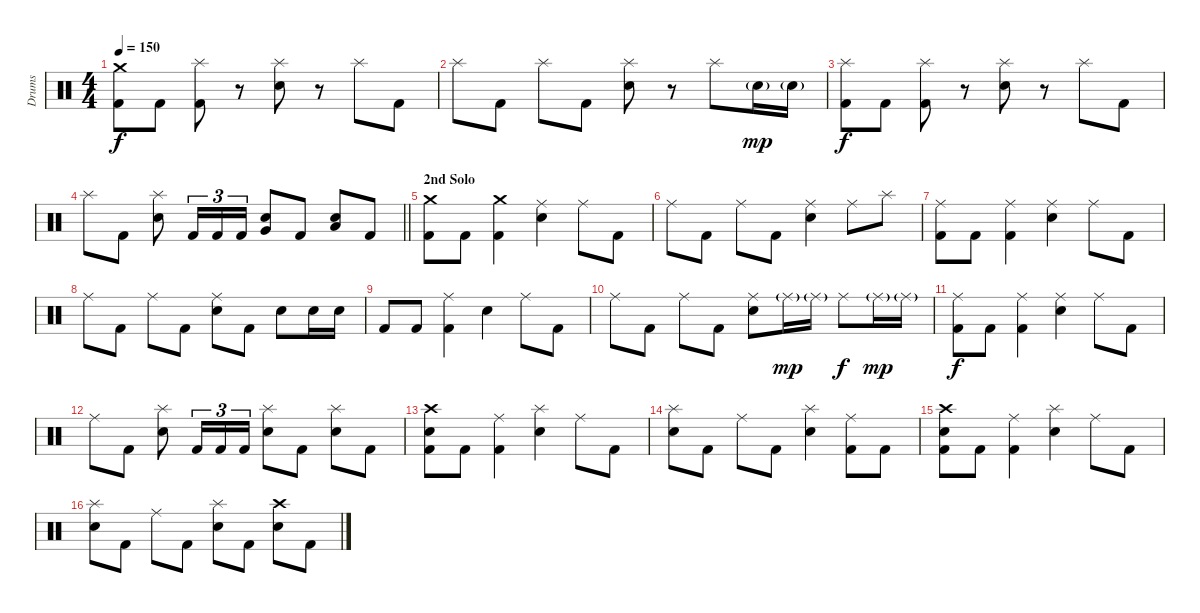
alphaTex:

\track ("Drums" "Drums") {instrument percussion}
\staff {score}
\articulation defaults
\ts (4 4)
\tempo 150
\clef neutral
\ks c
("Crash medium (hit)" "Kick (hit) 2").8{dy f} "Kick (hit) 2".8 ("Splash (hit)" "Kick (hit) 2").8 r.8 ("Splash (hit)" "Electric Snare (hit)").8 r.8 "Splash (hit)".8 "Kick (hit) 2".8 |
"Splash (hit)".8 "Kick (hit) 2".8 "Splash (hit)".8 "Kick (hit) 2".8 ("Splash (hit)" "Electric Snare (hit)").8 r.8 "Splash (hit)".8 "Electric Snare (hit)"{g}.16{dy mp} "Electric Snare (hit)"{g}.16 |
("Splash (hit)" "Kick (hit) 2").8{dy f} "Kick (hit) 2".8 ("Splash (hit)" "Kick (hit) 2").8 r.8 ("Splash (hit)" "Electric Snare (hit)").8 r.8 "Splash (hit)".8 "Kick (hit) 2".8 |
\barLineRight lightlight "Splash (hit)".8 "Kick (hit) 2".8
("Splash (hit)" "Electric Snare (hit)").8 "Kick (hit) 2".16{tu (3 2)} "Kick (hit) 2".16{tu (3 2)} "Kick (hit) 2".16{tu (3 2)} ("Very Low Tom (hit)" "Electric Snare (hit)").8 "Kick (hit) 2".8 ("Low Floor Tom (hit)" "Electric Snare (hit)").8 "Kick (hit) 2".8 |
\section ("" "2nd Solo")
("Crash medium (hit)" "Kick (hit) 2").8 "Kick (hit) 2".8 ("Crash medium (hit)" "Kick (hit) 2").4 ("Ride (middle)" "Electric Snare (hit)").4 "Ride (middle)".8 "Kick (hit) 2".8 |
"Ride (middle)".8 "Kick (hit) 2".8 "Ride (middle)".8 "Kick (hit) 2".8 ("Ride (middle)" "Electric Snare (hit)").4 "Ride (middle)".8 "Splash (hit)".8 |
("Ride (middle)" "Kick (hit) 2").8 "Kick (hit) 2".8 ("Ride (middle)" "Kick (hit) 2").4 ("Ride (middle)" "Electric Snare (hit)").4 "Ride (middle)".8 "Kick (hit) 2".8 |
"Ride (middle)".8 "Kick (hit) 2".8 "Ride (middle)".8 "Kick (hit) 2".8 ("Ride (middle)" "Electric Snare (hit)").8 "Kick (hit) 2".8 "Electric Snare (hit)".8 "Electric Snare (hit)".16 "Electric Snare (hit)".16 |
"Kick (hit) 2".8 "Kick (hit) 2".8 ("Ride (middle)" "Kick (hit) 2").4 "Electric Snare (hit)".4 "Ride (middle)".8 "Kick (hit) 2".8 |
"Ride (middle)".8 "Kick (hit) 2".8 "Ride (middle)".8 "Kick (hit) 2".8 ("Ride (middle)" "Electric Snare (hit)").8 "Ride (middle)"{g}.16{dy mp} "Ride (middle)"{g}.16 "Ride (middle)".8{dy f} "Ride (middle)"{g}.16{dy mp} "Ride (middle)"{g}.16 |
("Ride (middle)" "Kick (hit) 2").8{dy f} "Kick (hit) 2".8 ("Ride (middle)" "Kick (hit) 2").4 ("Ride (middle)" "Electric Snare (hit)").4 "Ride (middle)".8 "Kick (hit) 2".8 |
"Ride (middle)".8 "Kick (hit) 2".8 ("Splash (hit)" "Electric Snare (hit)").8 "Kick (hit) 2".16{tu (3 2)} "Kick (hit) 2".16{tu (3 2)} "Kick (hit) 2".16{tu (3 2)} ("Splash (hit)" "Electric Snare (hit)").8 "Kick (hit) 2".8 ("Splash (hit)" "Electric Snare (hit)").8 "Kick (hit) 2".8 |
("Crash high (hit)" "Electric Snare (hit)" "Kick (hit) 2").8 "Kick (hit) 2".8 ("Ride (middle)" "Kick (hit) 2").4 ("Splash (hit)" "Electric Snare (hit)").4 "Ride (middle)".8 "Kick (hit) 2".8 |
("Splash (hit)" "Electric Snare (hit)").8 "Kick (hit) 2".8 "Ride (middle)".8 "Kick (hit) 2".8 ("Splash (hit)" "Electric Snare (hit)").4 ("Ride (middle)" "Kick (hit) 2").8 "Kick (hit) 2".8 |
("Crash high (hit)" "Electric Snare (hit)" "Kick (hit) 2").8 "Kick (hit) 2".8 ("Ride (middle)" "Kick (hit) 2").4 ("Splash (hit)" "Electric Snare (hit)").4 "Ride (middle)".8 "Kick (hit) 2".8 |
("Splash (hit)" "Electric Snare (hit)").8 "Kick (hit) 2".8 "Ride (middle)".8 "Kick (hit) 2".8 ("Splash (hit)" "Electric Snare (hit)").8 "Kick (hit) 2".8 ("Crash high (hit)" "Electric Snare (hit)").8 "Kick (hit) 2".8
